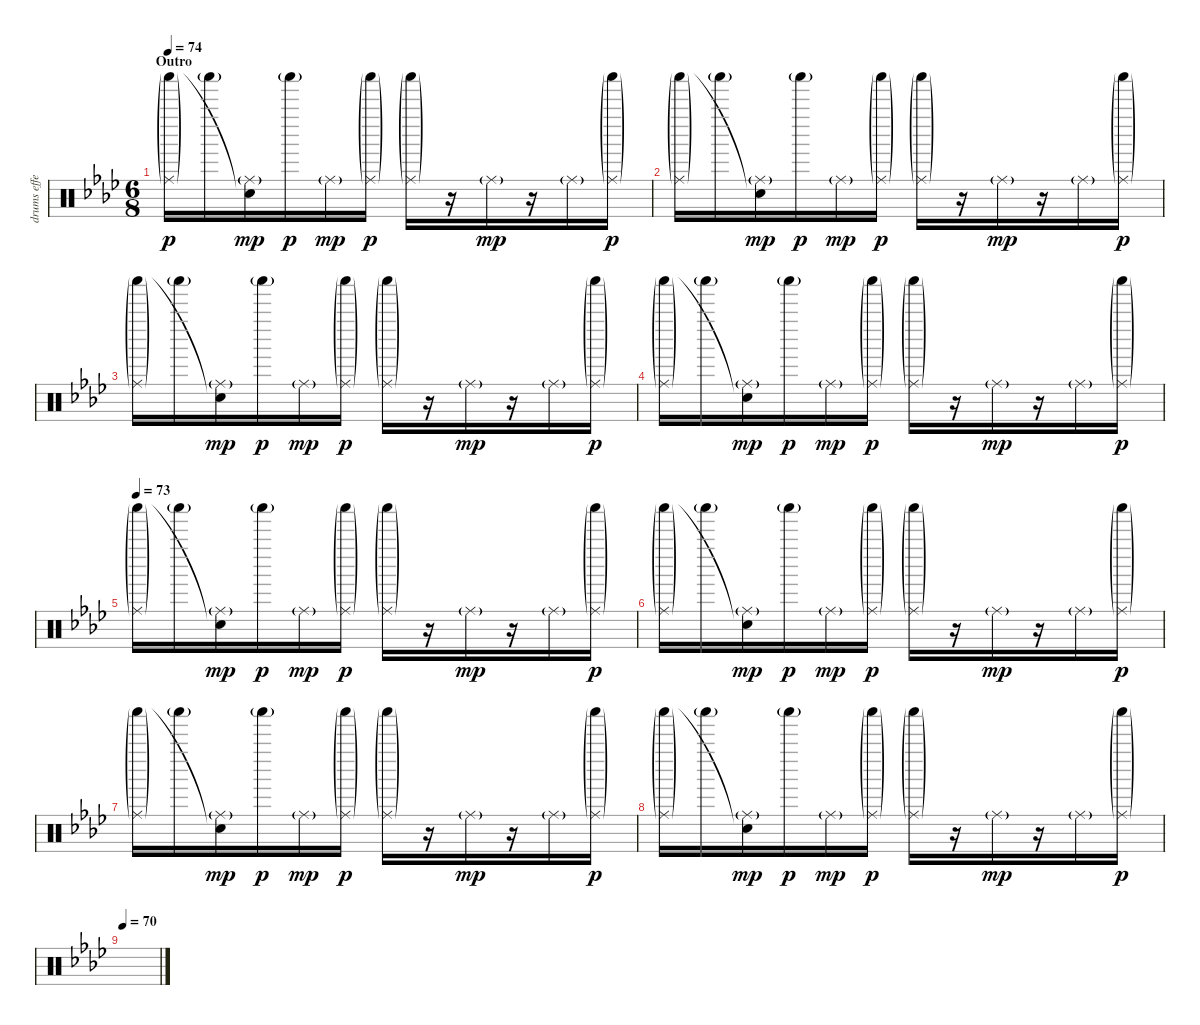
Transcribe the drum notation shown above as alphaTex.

\track ("drums effect" "drums effe") {instrument percussion}
\staff {score}
\articulation defaults
\ts (6 8)
\section ("" "Outro")
\tempo 74
\clef neutral
\ks ab
("Ride (middle)"{g} "Shaker (hit)"{g}).16{dy p} "Shaker (hit)"{g}.16 ("Ride (middle)"{g} "Snare (hit)"{t}).16{dy mp} "Shaker (hit)"{g}.16{dy p} "Ride (middle)"{g}.16{dy mp} ("Ride (middle)"{g} "Shaker (hit)"{g}).16{dy p} ("Ride (middle)"{g} "Shaker (hit)"{g}).16 r.16 "Ride (middle)"{g}.16{dy mp} r.16 "Ride (middle)"{g}.16 ("Ride (middle)"{g} "Shaker (hit)"{g}).16{dy p} |
("Ride (middle)"{g} "Shaker (hit)"{g}).16 "Shaker (hit)"{g}.16 ("Ride (middle)"{g} "Snare (hit)"{t}).16{dy mp} "Shaker (hit)"{g}.16{dy p} "Ride (middle)"{g}.16{dy mp} ("Ride (middle)"{g} "Shaker (hit)"{g}).16{dy p} ("Ride (middle)"{g} "Shaker (hit)"{g}).16 r.16 "Ride (middle)"{g}.16{dy mp} r.16 "Ride (middle)"{g}.16 ("Ride (middle)"{g} "Shaker (hit)"{g}).16{dy p} |
("Ride (middle)"{g} "Shaker (hit)"{g}).16 "Shaker (hit)"{g}.16 ("Ride (middle)"{g} "Snare (hit)"{t}).16{dy mp} "Shaker (hit)"{g}.16{dy p} "Ride (middle)"{g}.16{dy mp} ("Ride (middle)"{g} "Shaker (hit)"{g}).16{dy p} ("Ride (middle)"{g} "Shaker (hit)"{g}).16 r.16 "Ride (middle)"{g}.16{dy mp} r.16 "Ride (middle)"{g}.16 ("Ride (middle)"{g} "Shaker (hit)"{g}).16{dy p} |
("Ride (middle)"{g} "Shaker (hit)"{g}).16 "Shaker (hit)"{g}.16 ("Ride (middle)"{g} "Snare (hit)"{t}).16{dy mp} "Shaker (hit)"{g}.16{dy p} "Ride (middle)"{g}.16{dy mp} ("Ride (middle)"{g} "Shaker (hit)"{g}).16{dy p} ("Ride (middle)"{g} "Shaker (hit)"{g}).16 r.16 "Ride (middle)"{g}.16{dy mp} r.16 "Ride (middle)"{g}.16 ("Ride (middle)"{g} "Shaker (hit)"{g}).16{dy p} |
\tempo 73
("Ride (middle)"{g} "Shaker (hit)"{g}).16 "Shaker (hit)"{g}.16 ("Ride (middle)"{g} "Snare (hit)"{t}).16{dy mp} "Shaker (hit)"{g}.16{dy p} "Ride (middle)"{g}.16{dy mp} ("Ride (middle)"{g} "Shaker (hit)"{g}).16{dy p} ("Ride (middle)"{g} "Shaker (hit)"{g}).16 r.16 "Ride (middle)"{g}.16{dy mp} r.16 "Ride (middle)"{g}.16 ("Ride (middle)"{g} "Shaker (hit)"{g}).16{dy p} |
("Ride (middle)"{g} "Shaker (hit)"{g}).16 "Shaker (hit)"{g}.16 ("Ride (middle)"{g} "Snare (hit)"{t}).16{dy mp} "Shaker (hit)"{g}.16{dy p} "Ride (middle)"{g}.16{dy mp} ("Ride (middle)"{g} "Shaker (hit)"{g}).16{dy p} ("Ride (middle)"{g} "Shaker (hit)"{g}).16 r.16 "Ride (middle)"{g}.16{dy mp} r.16 "Ride (middle)"{g}.16 ("Ride (middle)"{g} "Shaker (hit)"{g}).16{dy p} |
("Ride (middle)"{g} "Shaker (hit)"{g}).16 "Shaker (hit)"{g}.16 ("Ride (middle)"{g} "Snare (hit)"{t}).16{dy mp} "Shaker (hit)"{g}.16{dy p} "Ride (middle)"{g}.16{dy mp} ("Ride (middle)"{g} "Shaker (hit)"{g}).16{dy p} ("Ride (middle)"{g} "Shaker (hit)"{g}).16 r.16 "Ride (middle)"{g}.16{dy mp} r.16 "Ride (middle)"{g}.16 ("Ride (middle)"{g} "Shaker (hit)"{g}).16{dy p} |
("Ride (middle)"{g} "Shaker (hit)"{g}).16 "Shaker (hit)"{g}.16 ("Ride (middle)"{g} "Snare (hit)"{t}).16{dy mp} "Shaker (hit)"{g}.16{dy p} "Ride (middle)"{g}.16{dy mp} ("Ride (middle)"{g} "Shaker (hit)"{g}).16{dy p} ("Ride (middle)"{g} "Shaker (hit)"{g}).16 r.16 "Ride (middle)"{g}.16{dy mp} r.16 "Ride (middle)"{g}.16 ("Ride (middle)"{g} "Shaker (hit)"{g}).16{dy p} |
\tempo 70
